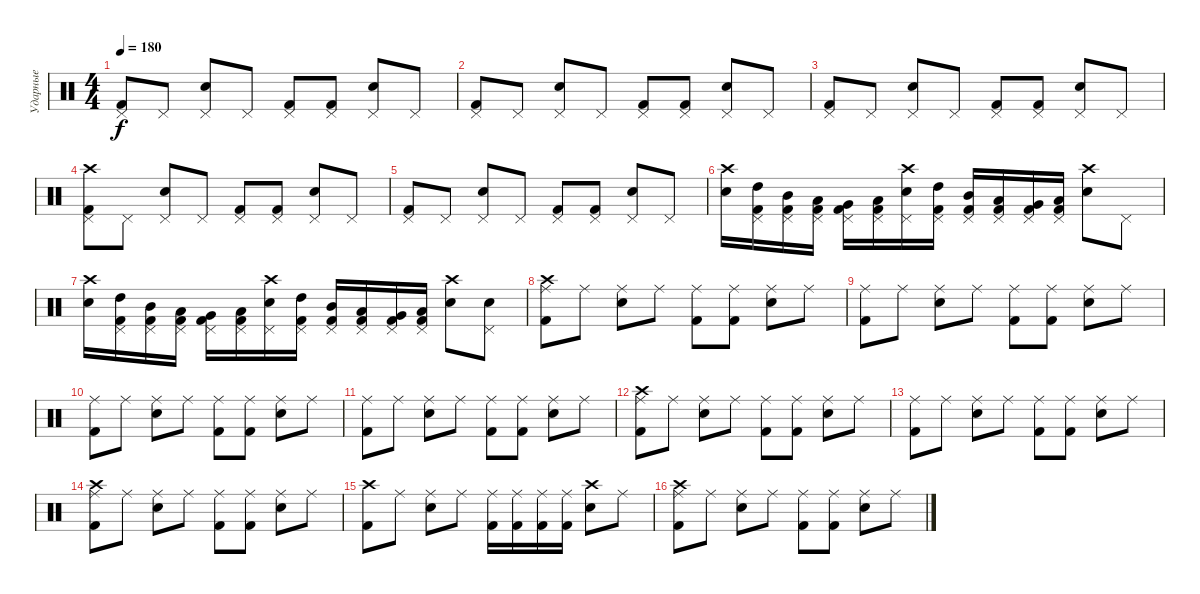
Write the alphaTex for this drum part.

\track ("Ударные" "Ударные") {instrument percussion}
\staff {score}
\articulation defaults
\ts (4 4)
\tempo 180
\clef neutral
\ks c
("Kick (hit) 2" "Pedal Hi-Hat (hit)").8{dy f} "Pedal Hi-Hat (hit)".8 ("Electric Snare (hit)" "Pedal Hi-Hat (hit)").8 "Pedal Hi-Hat (hit)".8 ("Pedal Hi-Hat (hit)" "Kick (hit) 2").8 ("Pedal Hi-Hat (hit)" "Kick (hit) 2").8 ("Electric Snare (hit)" "Pedal Hi-Hat (hit)").8 "Pedal Hi-Hat (hit)".8 |
("Kick (hit) 2" "Pedal Hi-Hat (hit)").8 "Pedal Hi-Hat (hit)".8 ("Electric Snare (hit)" "Pedal Hi-Hat (hit)").8 "Pedal Hi-Hat (hit)".8 ("Pedal Hi-Hat (hit)" "Kick (hit) 2").8 ("Pedal Hi-Hat (hit)" "Kick (hit) 2").8 ("Electric Snare (hit)" "Pedal Hi-Hat (hit)").8 "Pedal Hi-Hat (hit)".8 |
("Kick (hit) 2" "Pedal Hi-Hat (hit)").8 "Pedal Hi-Hat (hit)".8 ("Electric Snare (hit)" "Pedal Hi-Hat (hit)").8 "Pedal Hi-Hat (hit)".8 ("Pedal Hi-Hat (hit)" "Kick (hit) 2").8 ("Pedal Hi-Hat (hit)" "Kick (hit) 2").8 ("Electric Snare (hit)" "Pedal Hi-Hat (hit)").8 "Pedal Hi-Hat (hit)".8 |
("Kick (hit) 2" "Pedal Hi-Hat (hit)" "Crash high (hit)").8 "Pedal Hi-Hat (hit)".8 ("Electric Snare (hit)" "Pedal Hi-Hat (hit)").8 "Pedal Hi-Hat (hit)".8 ("Pedal Hi-Hat (hit)" "Kick (hit) 2").8 ("Pedal Hi-Hat (hit)" "Kick (hit) 2").8 ("Electric Snare (hit)" "Pedal Hi-Hat (hit)").8 "Pedal Hi-Hat (hit)".8 |
("Kick (hit) 2" "Pedal Hi-Hat (hit)").8 "Pedal Hi-Hat (hit)".8 ("Electric Snare (hit)" "Pedal Hi-Hat (hit)").8 "Pedal Hi-Hat (hit)".8 ("Pedal Hi-Hat (hit)" "Kick (hit) 2").8 ("Pedal Hi-Hat (hit)" "Kick (hit) 2").8 ("Electric Snare (hit)" "Pedal Hi-Hat (hit)").8 "Pedal Hi-Hat (hit)".8 |
("Crash high (hit)" "Electric Snare (hit)").16 ("Kick (hit) 2" "Pedal Hi-Hat (hit)" "High Tom (hit)").16 ("Kick (hit) 2" "Pedal Hi-Hat (hit)" "Mid Tom (hit)").16 ("Pedal Hi-Hat (hit)" "Kick (hit) 2" "Low Tom (hit)").16 ("Pedal Hi-Hat (hit)" "Kick (hit) 2" "Very Low Tom (hit)").16 ("Pedal Hi-Hat (hit)" "Kick (hit) 2" "Low Floor Tom (hit)").16 ("Electric Snare (hit)" "Pedal Hi-Hat (hit)" "Crash high (hit)").16 ("Pedal Hi-Hat (hit)" "Kick (hit) 2" "High Tom (hit)").16 ("Pedal Hi-Hat (hit)" "Kick (hit) 2" "Mid Tom (hit)").16 ("Pedal Hi-Hat (hit)" "Kick (hit) 2" "Low Tom (hit)").16 ("Pedal Hi-Hat (hit)" "Kick (hit) 2" "Very Low Tom (hit)").16 ("Pedal Hi-Hat (hit)" "Kick (hit) 2" "Low Floor Tom (hit)").16 ("Electric Snare (hit)" "Crash high (hit)").8 "Pedal Hi-Hat (hit)".8 |
("Crash high (hit)" "Electric Snare (hit)").16 ("Kick (hit) 2" "Pedal Hi-Hat (hit)" "High Tom (hit)").16 ("Kick (hit) 2" "Pedal Hi-Hat (hit)" "Mid Tom (hit)").16 ("Pedal Hi-Hat (hit)" "Kick (hit) 2" "Low Tom (hit)").16 ("Pedal Hi-Hat (hit)" "Kick (hit) 2" "Very Low Tom (hit)").16 ("Pedal Hi-Hat (hit)" "Kick (hit) 2" "Low Floor Tom (hit)").16 ("Electric Snare (hit)" "Pedal Hi-Hat (hit)" "Crash high (hit)").16 ("Pedal Hi-Hat (hit)" "Kick (hit) 2" "High Tom (hit)").16 ("Pedal Hi-Hat (hit)" "Kick (hit) 2" "Mid Tom (hit)").16 ("Pedal Hi-Hat (hit)" "Kick (hit) 2" "Low Tom (hit)").16 ("Pedal Hi-Hat (hit)" "Kick (hit) 2" "Very Low Tom (hit)").16 ("Pedal Hi-Hat (hit)" "Kick (hit) 2" "Low Floor Tom (hit)").16 ("Electric Snare (hit)" "Crash high (hit)").8 ("Pedal Hi-Hat (hit)" "Electric Snare (hit)").8 |
("Kick (hit) 2" "Ride (middle)" "Crash high (hit)").8 "Ride (middle)".8 ("Electric Snare (hit)" "Ride (middle)").8 "Ride (middle)".8 ("Ride (middle)" "Kick (hit) 2").8 ("Ride (middle)" "Kick (hit) 2").8 ("Electric Snare (hit)" "Ride (middle)").8 "Ride (middle)".8 |
("Kick (hit) 2" "Ride (middle)").8 "Ride (middle)".8 ("Electric Snare (hit)" "Ride (middle)").8 "Ride (middle)".8 ("Ride (middle)" "Kick (hit) 2").8 ("Ride (middle)" "Kick (hit) 2").8 ("Electric Snare (hit)" "Ride (middle)").8 "Ride (middle)".8 |
("Kick (hit) 2" "Ride (middle)").8 "Ride (middle)".8 ("Electric Snare (hit)" "Ride (middle)").8 "Ride (middle)".8 ("Ride (middle)" "Kick (hit) 2").8 ("Ride (middle)" "Kick (hit) 2").8 ("Electric Snare (hit)" "Ride (middle)").8 "Ride (middle)".8 |
("Kick (hit) 2" "Ride (middle)").8 "Ride (middle)".8 ("Electric Snare (hit)" "Ride (middle)").8 "Ride (middle)".8 ("Ride (middle)" "Kick (hit) 2").8 ("Ride (middle)" "Kick (hit) 2").8 ("Electric Snare (hit)" "Ride (middle)").8 "Ride (middle)".8 |
("Kick (hit) 2" "Ride (middle)" "Crash high (hit)").8 "Ride (middle)".8 ("Electric Snare (hit)" "Ride (middle)").8 "Ride (middle)".8 ("Ride (middle)" "Kick (hit) 2").8 ("Ride (middle)" "Kick (hit) 2").8 ("Electric Snare (hit)" "Ride (middle)").8 "Ride (middle)".8 |
("Kick (hit) 2" "Ride (middle)").8 "Ride (middle)".8 ("Electric Snare (hit)" "Ride (middle)").8 "Ride (middle)".8 ("Ride (middle)" "Kick (hit) 2").8 ("Ride (middle)" "Kick (hit) 2").8 ("Electric Snare (hit)" "Ride (middle)").8 "Ride (middle)".8 |
("Kick (hit) 2" "Ride (middle)" "Crash high (hit)").8 "Ride (middle)".8 ("Electric Snare (hit)" "Ride (middle)").8 "Ride (middle)".8 ("Ride (middle)" "Kick (hit) 2").8 ("Ride (middle)" "Kick (hit) 2").8 ("Electric Snare (hit)" "Ride (middle)").8 "Ride (middle)".8 |
("Kick (hit) 2" "Crash high (hit)").8 "Ride (middle)".8 ("Electric Snare (hit)" "Ride (middle)").8 "Ride (middle)".8 ("Ride (middle)" "Kick (hit) 2").16 ("Ride (middle)" "Kick (hit) 2").16 ("Kick (hit) 2" "Ride (middle)").16 ("Ride (middle)" "Kick (hit) 2").16 ("Electric Snare (hit)" "Crash high (hit)").8 "Ride (middle)".8 |
("Kick (hit) 2" "Ride (middle)" "Crash high (hit)").8 "Ride (middle)".8 ("Electric Snare (hit)" "Ride (middle)").8 "Ride (middle)".8 ("Ride (middle)" "Kick (hit) 2").8 ("Ride (middle)" "Kick (hit) 2").8 ("Electric Snare (hit)" "Ride (middle)").8 "Ride (middle)".8
